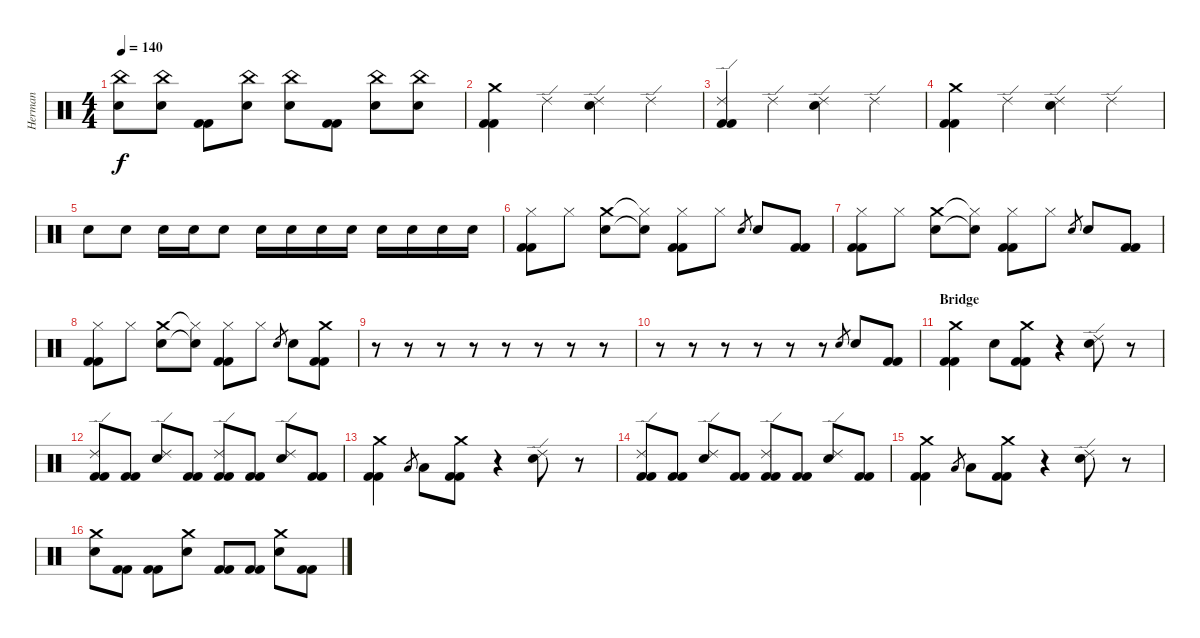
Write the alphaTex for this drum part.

\track ("Herman" "Herman") {instrument percussion}
\staff {score}
\articulation defaults
\ts (4 4)
\tempo 140
\clef neutral
\ks c
("China (hit)" "Electric Snare (hit)").8{dy f} ("China (hit)" "Electric Snare (hit)").8 ("Kick (hit) 2" "Kick (hit) 2").8 ("Electric Snare (hit)" "China (hit)").8 ("China (hit)" "Electric Snare (hit)").8 ("Kick (hit) 2" "Kick (hit) 2").8 ("China (hit)" "Electric Snare (hit)").8 ("Electric Snare (hit)" "China (hit)").8 |
("Crash medium (hit)" "Kick (hit) 2" "Kick (hit) 2").4 "Ride (edge) 2".4 ("Electric Snare (hit)" "Ride (edge) 2").4 "Ride (edge) 2".4 |
("Ride (edge) 2" "Kick (hit) 2" "Kick (hit) 2").4 "Ride (edge) 2".4 ("Electric Snare (hit)" "Ride (edge) 2").4 "Ride (edge) 2".4 |
("Crash medium (hit)" "Kick (hit) 2" "Kick (hit) 2").4 "Ride (edge) 2".4 ("Electric Snare (hit)" "Ride (edge) 2").4 "Ride (edge) 2".4 |
"Electric Snare (hit)".8 "Electric Snare (hit)".8 "Electric Snare (hit)".16 "Electric Snare (hit)".16 "Electric Snare (hit)".8 "Electric Snare (hit)".16 "Electric Snare (hit)".16 "Electric Snare (hit)".16 "Electric Snare (hit)".16 "Electric Snare (hit)".16 "Electric Snare (hit)".16 "Electric Snare (hit)".16 "Electric Snare (hit)".16 |
("Hi-Hat (closed)" "Kick (hit) 2" "Kick (hit) 2").8 "Hi-Hat (closed)".8 ("Electric Snare (hit)" "Crash medium (hit)").8 ("Snare (hit)"{t} "Hi-Hat (closed)"{t}).8 ("Hi-Hat (closed)" "Kick (hit) 2" "Kick (hit) 2").8 "Hi-Hat (closed)".8 "Electric Snare (hit)".8{gr} "Electric Snare (hit)".8 ("Kick (hit) 2" "Kick (hit) 2").8 |
("Hi-Hat (closed)" "Kick (hit) 2" "Kick (hit) 2").8 "Hi-Hat (closed)".8 ("Electric Snare (hit)" "Crash medium (hit)").8 ("Snare (hit)"{t} "Hi-Hat (closed)"{t}).8 ("Hi-Hat (closed)" "Kick (hit) 2" "Kick (hit) 2").8 "Hi-Hat (closed)".8 "Electric Snare (hit)".8{gr} "Electric Snare (hit)".8 ("Kick (hit) 2" "Kick (hit) 2").8 |
("Hi-Hat (closed)" "Kick (hit) 2" "Kick (hit) 2").8 "Hi-Hat (closed)".8 ("Electric Snare (hit)" "Crash medium (hit)").8 ("Snare (hit)"{t} "Hi-Hat (closed)"{t}).8 ("Hi-Hat (closed)" "Kick (hit) 2" "Kick (hit) 2").8 "Hi-Hat (closed)".8 "Electric Snare (hit)".8{gr} "Electric Snare (hit)".8 ("Kick (hit) 2" "Kick (hit) 2" "Crash medium (hit)").8 |
r.8 r.8 r.8 r.8 r.8 r.8 r.8 r.8 |
r.8 r.8 r.8 r.8 r.8 r.8 "Electric Snare (hit)".8{gr} "Electric Snare (hit)".8 ("Kick (hit) 2" "Kick (hit) 2").8 |
\section ("" "Bridge")
("Crash medium (hit)" "Kick (hit) 2" "Kick (hit) 2").4 "Electric Snare (hit)".8 ("Crash medium (hit)" "Kick (hit) 2" "Kick (hit) 2").8 r.4 ("Electric Snare (hit)" "Ride (edge) 2").8 r.8 |
("Ride (edge) 2" "Kick (hit) 2" "Kick (hit) 2").8 ("Kick (hit) 2" "Kick (hit) 2").8 ("Ride (edge) 2" "Electric Snare (hit)").8 ("Kick (hit) 2" "Kick (hit) 2").8 ("Ride (edge) 2" "Kick (hit) 2" "Kick (hit) 2").8 ("Kick (hit) 2" "Kick (hit) 2").8 ("Electric Snare (hit)" "Ride (edge) 2").8 ("Kick (hit) 2" "Kick (hit) 2").8 |
("Crash medium (hit)" "Kick (hit) 2" "Kick (hit) 2").4 "Low Tom (hit)".8{gr} "Low Tom (hit)".8 ("Crash medium (hit)" "Kick (hit) 2" "Kick (hit) 2").8 r.4 ("Ride (edge) 2" "Electric Snare (hit)").8 r.8 |
("Ride (edge) 2" "Kick (hit) 2" "Kick (hit) 2").8 ("Kick (hit) 2" "Kick (hit) 2").8 ("Ride (edge) 2" "Electric Snare (hit)").8 ("Kick (hit) 2" "Kick (hit) 2").8 ("Ride (edge) 2" "Kick (hit) 2" "Kick (hit) 2").8 ("Kick (hit) 2" "Kick (hit) 2").8 ("Electric Snare (hit)" "Ride (edge) 2").8 ("Kick (hit) 2" "Kick (hit) 2").8 |
("Crash medium (hit)" "Kick (hit) 2" "Kick (hit) 2").4 "Low Tom (hit)".8{gr} "Low Tom (hit)".8 ("Crash medium (hit)" "Kick (hit) 2" "Kick (hit) 2").8 r.4 ("Ride (edge) 2" "Electric Snare (hit)").8 r.8 |
("Electric Snare (hit)" "Crash medium (hit)").8 ("Kick (hit) 2" "Kick (hit) 2").8 ("Kick (hit) 2" "Kick (hit) 2").8 ("Electric Snare (hit)" "Crash medium (hit)").8 ("Kick (hit) 2" "Kick (hit) 2").8 ("Kick (hit) 2" "Kick (hit) 2").8 ("Electric Snare (hit)" "Crash medium (hit)").8 ("Kick (hit) 2" "Kick (hit) 2").8
